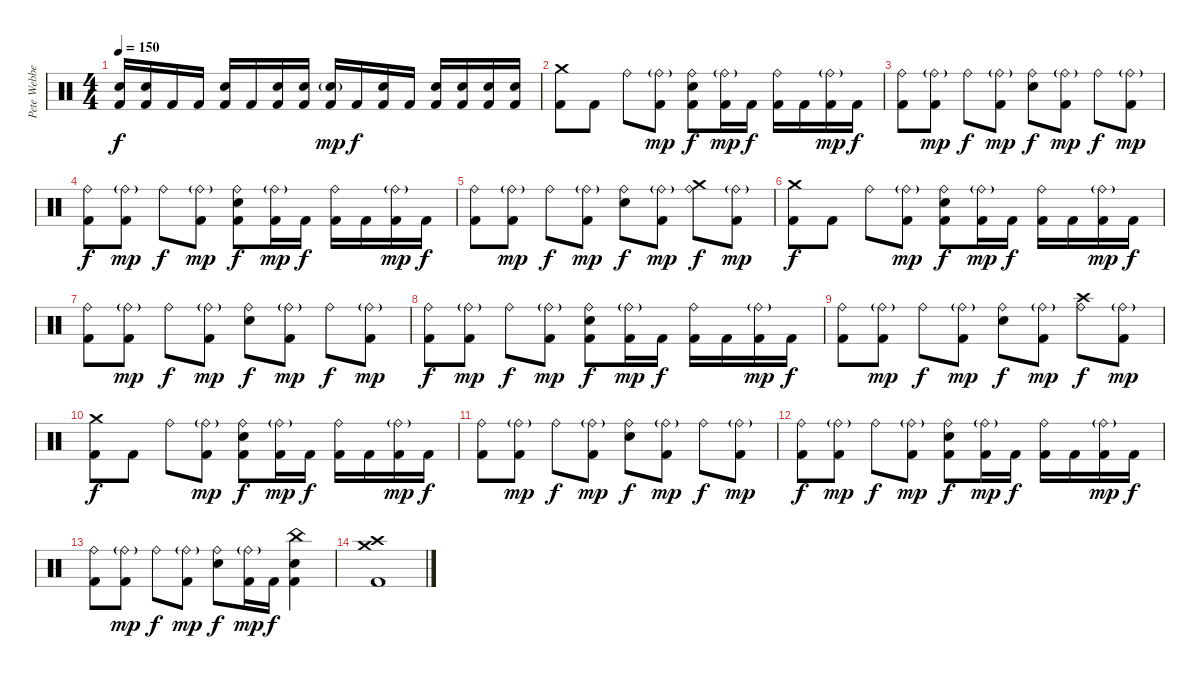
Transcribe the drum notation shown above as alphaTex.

\track ("Pete Webber" "Pete Webbe") {instrument percussion}
\staff {score}
\articulation defaults
\ts (4 4)
\tempo 150
\clef neutral
\ks c
("Electric Snare (hit)" "Kick (hit) 2").16{dy f} ("Electric Snare (hit)" "Kick (hit) 2").16 "Kick (hit) 2".16 "Kick (hit) 2".16 ("Electric Snare (hit)" "Kick (hit) 2").16 "Kick (hit) 2".16 ("Electric Snare (hit)" "Kick (hit) 2").16 ("Electric Snare (hit)" "Kick (hit) 2").16 ("Electric Snare (hit)"{g} "Kick (hit) 2").16{dy mp} "Kick (hit) 2".16{dy f} ("Electric Snare (hit)" "Kick (hit) 2").16 "Kick (hit) 2".16 ("Electric Snare (hit)" "Kick (hit) 2").16 ("Electric Snare (hit)" "Kick (hit) 2").16 ("Electric Snare (hit)" "Kick (hit) 2").16 ("Electric Snare (hit)" "Kick (hit) 2").16 |
("Kick (hit) 2" "Crash medium (hit)").8 "Kick (hit) 2".8 "Ride (bell)".8 ("Ride (bell)"{g} "Kick (hit) 2").8{dy mp} ("Ride (bell)" "Electric Snare (hit)" "Kick (hit) 2").8{dy f} ("Ride (bell)"{g} "Kick (hit) 2").16{dy mp} "Kick (hit) 2".16{dy f} ("Ride (bell)" "Kick (hit) 2").16 "Kick (hit) 2".16 ("Ride (bell)"{g} "Kick (hit) 2").16{dy mp} "Kick (hit) 2".16{dy f} |
("Ride (bell)" "Kick (hit) 2").8 ("Ride (bell)"{g} "Kick (hit) 2").8{dy mp} "Ride (bell)".8{dy f} ("Ride (bell)"{g} "Kick (hit) 2").8{dy mp} ("Ride (bell)" "Electric Snare (hit)").8{dy f} ("Ride (bell)"{g} "Kick (hit) 2").8{dy mp} "Ride (bell)".8{dy f} ("Ride (bell)"{g} "Kick (hit) 2").8{dy mp} |
("Ride (bell)" "Kick (hit) 2").8{dy f} ("Ride (bell)"{g} "Kick (hit) 2").8{dy mp} "Ride (bell)".8{dy f} ("Ride (bell)"{g} "Kick (hit) 2").8{dy mp} ("Ride (bell)" "Electric Snare (hit)" "Kick (hit) 2").8{dy f} ("Ride (bell)"{g} "Kick (hit) 2").16{dy mp} "Kick (hit) 2".16{dy f} ("Ride (bell)" "Kick (hit) 2").16 "Kick (hit) 2".16 ("Ride (bell)"{g} "Kick (hit) 2").16{dy mp} "Kick (hit) 2".16{dy f} |
("Ride (bell)" "Kick (hit) 2").8 ("Ride (bell)"{g} "Kick (hit) 2").8{dy mp} "Ride (bell)".8{dy f} ("Ride (bell)"{g} "Kick (hit) 2").8{dy mp} ("Ride (bell)" "Electric Snare (hit)").8{dy f} ("Ride (bell)"{g} "Kick (hit) 2").8{dy mp} ("Ride (bell)" "Crash medium (hit)").8{dy f} ("Ride (bell)"{g} "Kick (hit) 2").8{dy mp} |
("Kick (hit) 2" "Crash medium (hit)").8{dy f} "Kick (hit) 2".8 "Ride (bell)".8 ("Ride (bell)"{g} "Kick (hit) 2").8{dy mp} ("Ride (bell)" "Electric Snare (hit)" "Kick (hit) 2").8{dy f} ("Ride (bell)"{g} "Kick (hit) 2").16{dy mp} "Kick (hit) 2".16{dy f} ("Ride (bell)" "Kick (hit) 2").16 "Kick (hit) 2".16 ("Ride (bell)"{g} "Kick (hit) 2").16{dy mp} "Kick (hit) 2".16{dy f} |
("Ride (bell)" "Kick (hit) 2").8 ("Ride (bell)"{g} "Kick (hit) 2").8{dy mp} "Ride (bell)".8{dy f} ("Ride (bell)"{g} "Kick (hit) 2").8{dy mp} ("Ride (bell)" "Electric Snare (hit)").8{dy f} ("Ride (bell)"{g} "Kick (hit) 2").8{dy mp} "Ride (bell)".8{dy f} ("Ride (bell)"{g} "Kick (hit) 2").8{dy mp} |
("Ride (bell)" "Kick (hit) 2").8{dy f} ("Ride (bell)"{g} "Kick (hit) 2").8{dy mp} "Ride (bell)".8{dy f} ("Ride (bell)"{g} "Kick (hit) 2").8{dy mp} ("Ride (bell)" "Electric Snare (hit)" "Kick (hit) 2").8{dy f} ("Ride (bell)"{g} "Kick (hit) 2").16{dy mp} "Kick (hit) 2".16{dy f} ("Ride (bell)" "Kick (hit) 2").16 "Kick (hit) 2".16 ("Ride (bell)"{g} "Kick (hit) 2").16{dy mp} "Kick (hit) 2".16{dy f} |
("Ride (bell)" "Kick (hit) 2").8 ("Ride (bell)"{g} "Kick (hit) 2").8{dy mp} "Ride (bell)".8{dy f} ("Ride (bell)"{g} "Kick (hit) 2").8{dy mp} ("Ride (bell)" "Electric Snare (hit)").8{dy f} ("Ride (bell)"{g} "Kick (hit) 2").8{dy mp} ("Ride (bell)" "Crash high (hit)").8{dy f} ("Ride (bell)"{g} "Kick (hit) 2").8{dy mp} |
("Kick (hit) 2" "Crash medium (hit)").8{dy f} "Kick (hit) 2".8 "Ride (bell)".8 ("Ride (bell)"{g} "Kick (hit) 2").8{dy mp} ("Ride (bell)" "Electric Snare (hit)" "Kick (hit) 2").8{dy f} ("Ride (bell)"{g} "Kick (hit) 2").16{dy mp} "Kick (hit) 2".16{dy f} ("Ride (bell)" "Kick (hit) 2").16 "Kick (hit) 2".16 ("Ride (bell)"{g} "Kick (hit) 2").16{dy mp} "Kick (hit) 2".16{dy f} |
("Ride (bell)" "Kick (hit) 2").8 ("Ride (bell)"{g} "Kick (hit) 2").8{dy mp} "Ride (bell)".8{dy f} ("Ride (bell)"{g} "Kick (hit) 2").8{dy mp} ("Ride (bell)" "Electric Snare (hit)").8{dy f} ("Ride (bell)"{g} "Kick (hit) 2").8{dy mp} "Ride (bell)".8{dy f} ("Ride (bell)"{g} "Kick (hit) 2").8{dy mp} |
("Ride (bell)" "Kick (hit) 2").8{dy f} ("Ride (bell)"{g} "Kick (hit) 2").8{dy mp} "Ride (bell)".8{dy f} ("Ride (bell)"{g} "Kick (hit) 2").8{dy mp} ("Ride (bell)" "Electric Snare (hit)" "Kick (hit) 2").8{dy f} ("Ride (bell)"{g} "Kick (hit) 2").16{dy mp} "Kick (hit) 2".16{dy f} ("Ride (bell)" "Kick (hit) 2").16 "Kick (hit) 2".16 ("Ride (bell)"{g} "Kick (hit) 2").16{dy mp} "Kick (hit) 2".16{dy f} |
("Ride (bell)" "Kick (hit) 2").8 ("Ride (bell)"{g} "Kick (hit) 2").8{dy mp} "Ride (bell)".8{dy f} ("Ride (bell)"{g} "Kick (hit) 2").8{dy mp} ("Ride (bell)" "Electric Snare (hit)").8{dy f} ("Ride (bell)"{g} "Kick (hit) 2").16{dy mp} "Kick (hit) 2".16{dy f} ("Electric Snare (hit)" "Kick (hit) 2" "China (hit)").4 |
("Kick (hit) 2" "Crash high (hit)" "Crash medium (hit)").1
